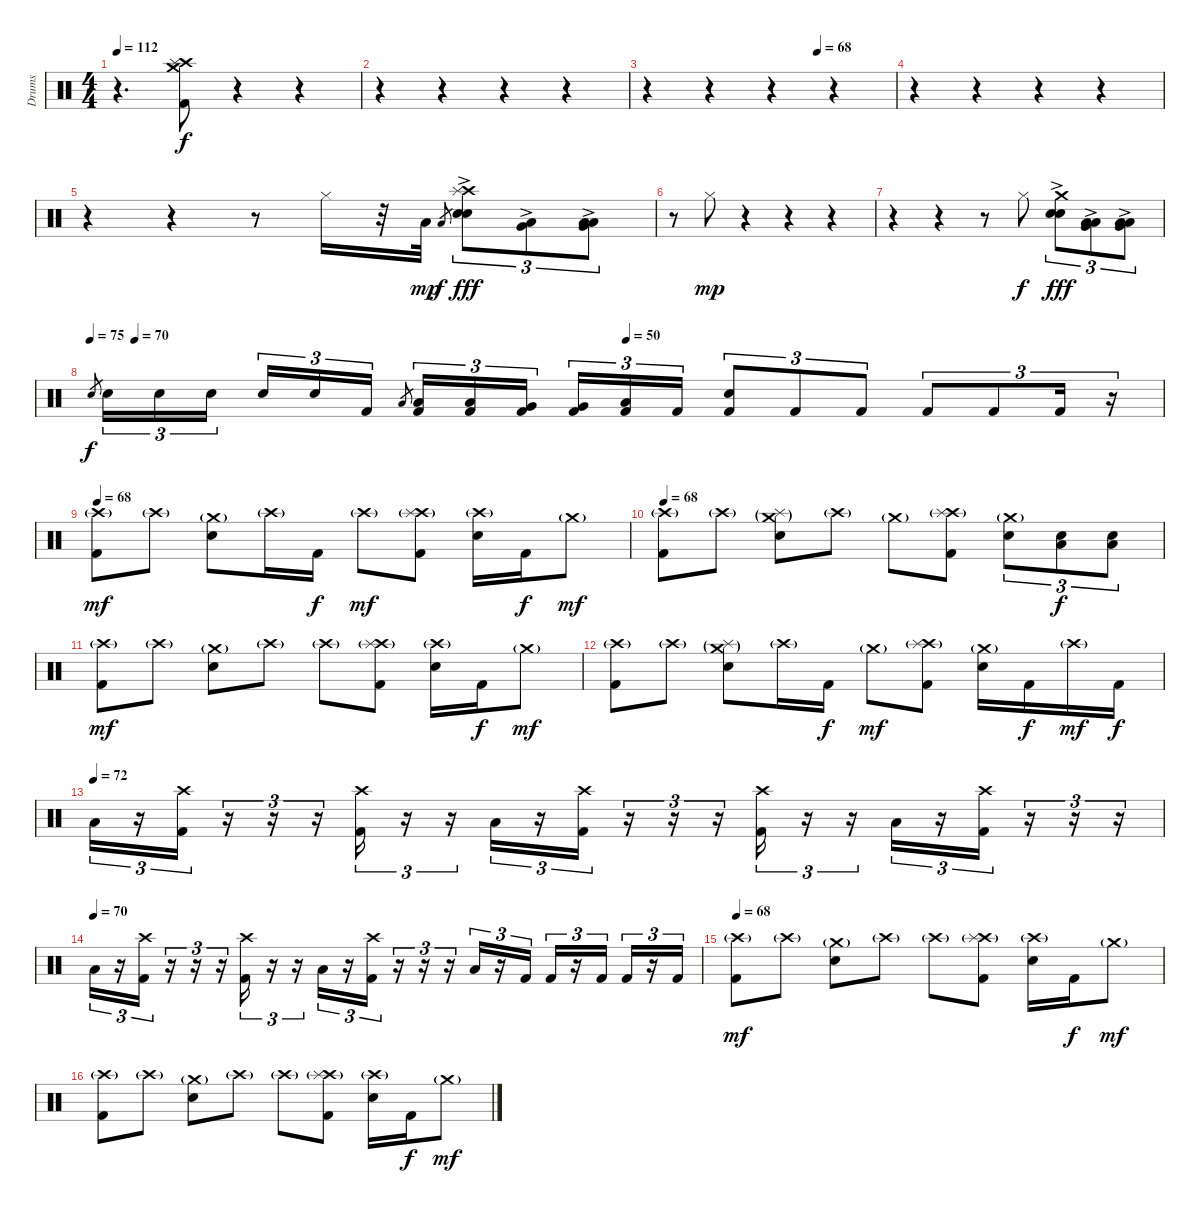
\track ("Drums" "Drums") {instrument percussion}
\staff {score}
\articulation defaults
\ts (4 4)
\tempo 112
\clef neutral
\ks c
r.4{d dy f} ("Crash high (hit)" "Crash medium (hit)" "Splash (hit)" "Kick (hit) 2").8 r.4 r.4 |
r.4 r.4 r.4 r.4 |
\tempo (68 0.6875)
r.4 r.4 r.4 r.4 |
r.4 r.4 r.4 r.4 |
r.4 r.4 r.8 "Hi-Hat (closed)".16 r.32 "Low Floor Tom (hit)".32{dy mp} "Low Floor Tom (hit)".8{gr dy f} ("Crash high (hit)" "Splash (hit)" "Electric Snare (hit)" "Electric Snare (hit)"{ac}).8{tu (3 2) dy fff} ("Low Floor Tom (hit)" "Very Low Tom (hit)"{ac}).8{tu (3 2)} ("Low Floor Tom (hit)" "Very Low Tom (hit)"{ac} "Low Tom (hit)").8{tu (3 2)} |
r.8 "Hi-Hat (closed)".8{dy mp} r.4 r.4 r.4 |
r.4 r.4 r.8 "Hi-Hat (closed)".8{dy f} ("Crash medium (hit)" "Electric Snare (hit)" "Electric Snare (hit)"{ac}).8{tu (3 2) dy fff} ("Low Floor Tom (hit)" "Very Low Tom (hit)"{ac} "Low Tom (hit)").8{tu (3 2)} ("Low Floor Tom (hit)" "Very Low Tom (hit)"{ac} "Low Tom (hit)").8{tu (3 2)} |
\tempo 75
\tempo (70 0.041666666666666664)
\tempo (50 0.5)
"Electric Snare (hit)".8{gr dy f} "Electric Snare (hit)".16{tu (3 2)} "Electric Snare (hit)".16{tu (3 2)} "Electric Snare (hit)".16{tu (3 2)} "Electric Snare (hit)".16{tu (3 2)} "Electric Snare (hit)".16{tu (3 2)} "Kick (hit) 2".16{tu (3 2)} "Low Tom (hit)".8{gr} ("Low Tom (hit)" "Kick (hit) 2").16{tu (3 2)} ("Low Tom (hit)" "Kick (hit) 2").16{tu (3 2)} ("Very Low Tom (hit)" "Kick (hit) 2").16{tu (3 2)} ("Very Low Tom (hit)" "Kick (hit) 2").16{tu (3 2)} ("Low Floor Tom (hit)" "Kick (hit) 2").16{tu (3 2)} "Kick (hit) 2".16{tu (3 2)} ("Electric Snare (hit)" "Kick (hit) 2").8{tu (3 2)} "Kick (hit) 2".8{tu (3 2)} "Kick (hit) 2".8{tu (3 2)} "Kick (hit) 2".8{tu (3 2)} "Kick (hit) 2".8{tu (3 2)} "Kick (hit) 2".16{tu (3 2)} r.16{tu (3 2)} |
\tempo 68
("Crash high (hit)"{g} "Kick (hit) 2").8{dy mf} "Crash high (hit)"{g}.8 ("Crash medium (hit)"{g} "Electric Snare (hit)").8 "Crash high (hit)"{g}.16 "Kick (hit) 2".16{dy f} "Crash high (hit)"{g}.8{dy mf} ("Crash high (hit)"{g} "Splash (hit)"{g} "Kick (hit) 2").8 ("Crash high (hit)"{g} "Electric Snare (hit)").16 "Kick (hit) 2".16{dy f} "Crash medium (hit)"{g}.8{dy mf} |
\tempo 68
("Crash high (hit)"{g} "Kick (hit) 2").8 "Crash high (hit)"{g}.8 ("Crash medium (hit)"{g} "Splash (hit)"{g} "Electric Snare (hit)").8 "Crash high (hit)"{g}.8 "Crash medium (hit)"{g}.8 ("Crash high (hit)"{g} "Splash (hit)"{g} "Kick (hit) 2").8 ("Crash medium (hit)"{g} "Electric Snare (hit)").8{tu (3 2)} ("Electric Snare (hit)" "Low Floor Tom (hit)").8{tu (3 2) dy f} ("Electric Snare (hit)" "Low Floor Tom (hit)").8{tu (3 2)} |
("Crash high (hit)"{g} "Kick (hit) 2").8{dy mf} "Crash high (hit)"{g}.8 ("Crash medium (hit)"{g} "Electric Snare (hit)").8 "Crash high (hit)"{g}.8 "Crash high (hit)"{g}.8 ("Crash high (hit)"{g} "Splash (hit)"{g} "Kick (hit) 2").8 ("Crash high (hit)"{g} "Electric Snare (hit)").16 "Kick (hit) 2".16{dy f} "Crash medium (hit)"{g}.8{dy mf} |
("Crash high (hit)"{g} "Kick (hit) 2").8 "Crash high (hit)"{g}.8 ("Crash medium (hit)"{g} "Splash (hit)"{g} "Electric Snare (hit)").8 "Crash high (hit)"{g}.16 "Kick (hit) 2".16{dy f} "Crash medium (hit)"{g}.8{dy mf} ("Crash high (hit)"{g} "Splash (hit)"{g} "Kick (hit) 2").8 ("Crash medium (hit)"{g} "Electric Snare (hit)").16 "Kick (hit) 2".16{dy f} "Crash high (hit)"{g}.16{dy mf} "Kick (hit) 2".16{dy f} |
\tempo (72)
"Low Floor Tom (hit)".16{tu (3 2)} r.16{tu (3 2)} ("Crash high (hit)" "Kick (hit) 2").16{tu (3 2)} r.16{tu (3 2)} r.16{tu (3 2)} r.16{tu (3 2)} ("Crash high (hit)" "Kick (hit) 2").16{tu (3 2)} r.16{tu (3 2)} r.16{tu (3 2)} "Low Floor Tom (hit)".16{tu (3 2)} r.16{tu (3 2)} ("Crash high (hit)" "Kick (hit) 2").16{tu (3 2)} r.16{tu (3 2)} r.16{tu (3 2)} r.16{tu (3 2)} ("Crash high (hit)" "Kick (hit) 2").16{tu (3 2)} r.16{tu (3 2)} r.16{tu (3 2)} "Low Floor Tom (hit)".16{tu (3 2)} r.16{tu (3 2)} ("Crash high (hit)" "Kick (hit) 2").16{tu (3 2)} r.16{tu (3 2)} r.16{tu (3 2)} r.16{tu (3 2)} |
\tempo (70)
"Low Floor Tom (hit)".16{tu (3 2)} r.16{tu (3 2)} ("Crash high (hit)" "Kick (hit) 2").16{tu (3 2)} r.16{tu (3 2)} r.16{tu (3 2)} r.16{tu (3 2)} ("Crash high (hit)" "Kick (hit) 2").16{tu (3 2)} r.16{tu (3 2)} r.16{tu (3 2)} "Low Floor Tom (hit)".16{tu (3 2)} r.16{tu (3 2)} ("Crash high (hit)" "Kick (hit) 2").16{tu (3 2)} r.16{tu (3 2)} r.16{tu (3 2)} r.16{tu (3 2)} "Low Floor Tom (hit)".16{tu (3 2)} r.16{tu (3 2)} "Kick (hit) 2".16{tu (3 2)} "Kick (hit) 2".16{tu (3 2)} r.16{tu (3 2)} "Kick (hit) 2".16{tu (3 2)} "Kick (hit) 2".16{tu (3 2)} r.16{tu (3 2)} "Kick (hit) 2".16{tu (3 2)} |
\tempo 68
("Crash high (hit)"{g} "Kick (hit) 2").8{dy mf} "Crash high (hit)"{g}.8 ("Crash medium (hit)"{g} "Electric Snare (hit)").8 "Crash high (hit)"{g}.8 "Crash high (hit)"{g}.8 ("Crash high (hit)"{g} "Splash (hit)"{g} "Kick (hit) 2").8 ("Crash high (hit)"{g} "Electric Snare (hit)").16 "Kick (hit) 2".16{dy f} "Crash medium (hit)"{g}.8{dy mf} |
("Crash high (hit)"{g} "Kick (hit) 2").8 "Crash high (hit)"{g}.8 ("Crash medium (hit)"{g} "Electric Snare (hit)").8 "Crash high (hit)"{g}.8 "Crash high (hit)"{g}.8 ("Crash high (hit)"{g} "Splash (hit)"{g} "Kick (hit) 2").8 ("Crash high (hit)"{g} "Electric Snare (hit)").16 "Kick (hit) 2".16{dy f} "Crash medium (hit)"{g}.8{dy mf}
